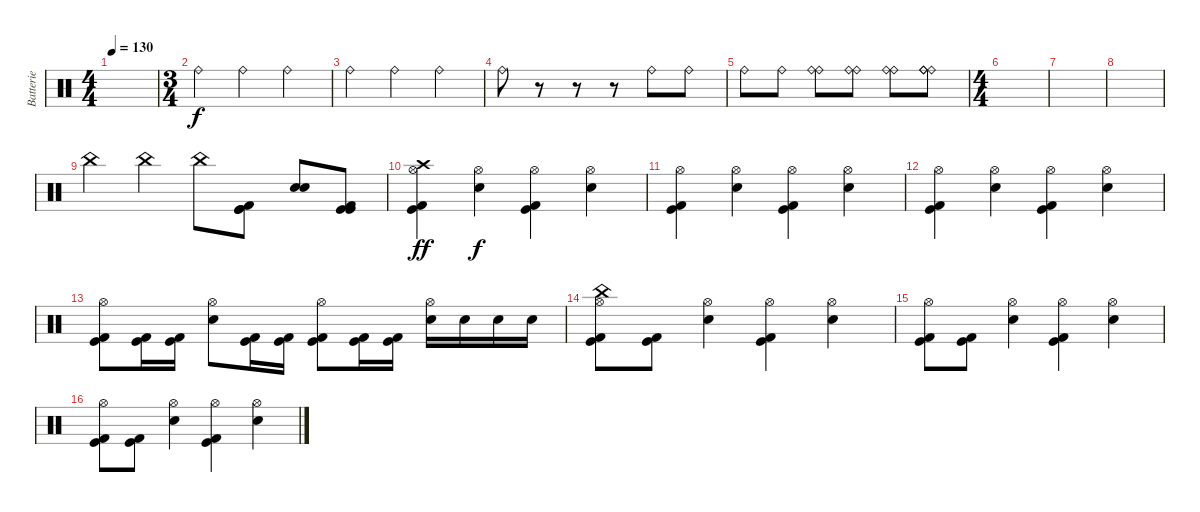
\track ("Batterie" "Batterie") {instrument percussion}
\staff {score}
\articulation defaults
\ts (4 4)
\tempo 130
\clef neutral
\ks c
|
\ts (3 4)
"Ride (bell)".4{dy f} "Ride (bell)".4 "Ride (bell)".4 |
"Ride (bell)".4 "Ride (bell)".4 "Ride (bell)".4 |
"Ride (bell)".8 r.8 r.8 r.8 "Ride (bell)".8 "Ride (bell)".8 |
"Ride (bell)".8 "Ride (bell)".8 ("Ride (bell)" "Ride (bell)").8 ("Ride (bell)" "Ride (bell)").8 ("Ride (bell)" "Ride (bell)").8 ("Ride (bell)" "Ride (bell)" "Ride (bell)").8 |
\ts (4 4)
|
|
|
"China (hit)".4 "China (hit)".4 "China (hit)".8 ("Kick (hit)" "Kick (hit) 2" "Kick (hit)").8 ("Electric Snare (hit)" "Electric Snare (hit)").8 ("Kick (hit)" "Kick (hit)" "Kick (hit) 2").8 |
("Hi-Hat (open)" "Crash high (hit)" "Kick (hit) 2" "Kick (hit)").4{dy ff} ("Hi-Hat (open)" "Electric Snare (hit)").4{dy f} ("Hi-Hat (open)" "Kick (hit)" "Kick (hit) 2").4 ("Hi-Hat (open)" "Electric Snare (hit)").4 |
("Hi-Hat (open)" "Kick (hit) 2" "Kick (hit)").4 ("Hi-Hat (open)" "Electric Snare (hit)").4 ("Hi-Hat (open)" "Kick (hit)" "Kick (hit) 2").4 ("Hi-Hat (open)" "Electric Snare (hit)").4 |
("Hi-Hat (open)" "Kick (hit) 2" "Kick (hit)").4 ("Hi-Hat (open)" "Electric Snare (hit)").4 ("Hi-Hat (open)" "Kick (hit)" "Kick (hit) 2").4 ("Hi-Hat (open)" "Electric Snare (hit)").4 |
("Hi-Hat (open)" "Kick (hit) 2" "Kick (hit)").8 ("Kick (hit)" "Kick (hit) 2").16 ("Kick (hit)" "Kick (hit) 2").16 ("Hi-Hat (open)" "Electric Snare (hit)").8 ("Kick (hit)" "Kick (hit) 2").16 ("Kick (hit) 2" "Kick (hit)").16 ("Hi-Hat (open)" "Kick (hit)" "Kick (hit) 2").8 ("Kick (hit)" "Kick (hit) 2").16 ("Kick (hit) 2" "Kick (hit)").16 ("Hi-Hat (open)" "Electric Snare (hit)").16 "Electric Snare (hit)".16 "Electric Snare (hit)".16 "Electric Snare (hit)".16 |
("Hi-Hat (open)" "China (hit)" "Kick (hit) 2" "Kick (hit)").8 ("Kick (hit)" "Kick (hit) 2").8 ("Hi-Hat (open)" "Electric Snare (hit)").4 ("Hi-Hat (open)" "Kick (hit)" "Kick (hit) 2").4 ("Hi-Hat (open)" "Electric Snare (hit)").4 |
("Hi-Hat (open)" "Kick (hit) 2" "Kick (hit)").8 ("Kick (hit) 2" "Kick (hit)").8 ("Hi-Hat (open)" "Electric Snare (hit)").4 ("Hi-Hat (open)" "Kick (hit)" "Kick (hit) 2").4 ("Hi-Hat (open)" "Electric Snare (hit)").4 |
("Hi-Hat (open)" "Kick (hit) 2" "Kick (hit)").8 ("Kick (hit)" "Kick (hit) 2").8 ("Hi-Hat (open)" "Electric Snare (hit)").4 ("Hi-Hat (open)" "Kick (hit)" "Kick (hit) 2").4 ("Hi-Hat (open)" "Electric Snare (hit)").4
